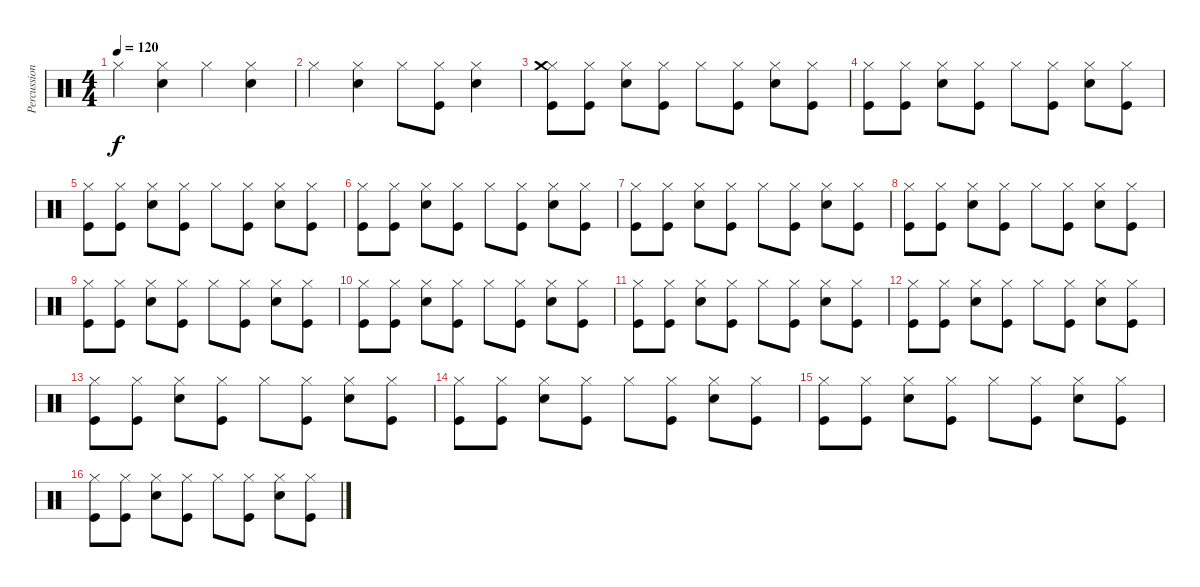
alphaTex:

\track ("Percussion" "Percussion") {instrument percussion}
\staff {score}
\articulation defaults
\ts (4 4)
\tempo 120
\clef neutral
\ks c "Hi-Hat (closed)".4{dy f}
("Electric Snare (hit)" "Hi-Hat (closed)").4 "Hi-Hat (closed)".4 ("Electric Snare (hit)" "Hi-Hat (closed)").4 |
"Hi-Hat (closed)".4 ("Electric Snare (hit)" "Hi-Hat (closed)").4 "Hi-Hat (closed)".8 ("Hi-Hat (closed)" "Kick (hit)").8 ("Electric Snare (hit)" "Hi-Hat (closed)").4 |
("Kick (hit)" "Hi-Hat (closed)" "Crash medium (hit)").8 ("Kick (hit)" "Hi-Hat (closed)").8 ("Electric Snare (hit)" "Hi-Hat (closed)").8 ("Kick (hit)" "Hi-Hat (closed)").8 "Hi-Hat (closed)".8 ("Kick (hit)" "Hi-Hat (closed)").8 ("Electric Snare (hit)" "Hi-Hat (closed)").8 ("Kick (hit)" "Hi-Hat (closed)").8 |
("Kick (hit)" "Hi-Hat (closed)").8 ("Kick (hit)" "Hi-Hat (closed)").8 ("Electric Snare (hit)" "Hi-Hat (closed)").8 ("Kick (hit)" "Hi-Hat (closed)").8 "Hi-Hat (closed)".8 ("Kick (hit)" "Hi-Hat (closed)").8 ("Electric Snare (hit)" "Hi-Hat (closed)").8 ("Kick (hit)" "Hi-Hat (closed)").8 |
("Kick (hit)" "Hi-Hat (closed)").8 ("Kick (hit)" "Hi-Hat (closed)").8 ("Electric Snare (hit)" "Hi-Hat (closed)").8 ("Kick (hit)" "Hi-Hat (closed)").8 "Hi-Hat (closed)".8 ("Kick (hit)" "Hi-Hat (closed)").8 ("Electric Snare (hit)" "Hi-Hat (closed)").8 ("Kick (hit)" "Hi-Hat (closed)").8 |
("Kick (hit)" "Hi-Hat (closed)").8 ("Kick (hit)" "Hi-Hat (closed)").8 ("Electric Snare (hit)" "Hi-Hat (closed)").8 ("Kick (hit)" "Hi-Hat (closed)").8 "Hi-Hat (closed)".8 ("Kick (hit)" "Hi-Hat (closed)").8 ("Electric Snare (hit)" "Hi-Hat (closed)").8 ("Kick (hit)" "Hi-Hat (closed)").8 |
("Kick (hit)" "Hi-Hat (closed)").8 ("Kick (hit)" "Hi-Hat (closed)").8 ("Electric Snare (hit)" "Hi-Hat (closed)").8 ("Kick (hit)" "Hi-Hat (closed)").8 "Hi-Hat (closed)".8 ("Kick (hit)" "Hi-Hat (closed)").8 ("Electric Snare (hit)" "Hi-Hat (closed)").8 ("Kick (hit)" "Hi-Hat (closed)").8 |
("Kick (hit)" "Hi-Hat (closed)").8 ("Kick (hit)" "Hi-Hat (closed)").8 ("Electric Snare (hit)" "Hi-Hat (closed)").8 ("Kick (hit)" "Hi-Hat (closed)").8 "Hi-Hat (closed)".8 ("Kick (hit)" "Hi-Hat (closed)").8 ("Electric Snare (hit)" "Hi-Hat (closed)").8 ("Kick (hit)" "Hi-Hat (closed)").8 |
("Kick (hit)" "Hi-Hat (closed)").8 ("Kick (hit)" "Hi-Hat (closed)").8 ("Electric Snare (hit)" "Hi-Hat (closed)").8 ("Kick (hit)" "Hi-Hat (closed)").8 "Hi-Hat (closed)".8 ("Kick (hit)" "Hi-Hat (closed)").8 ("Electric Snare (hit)" "Hi-Hat (closed)").8 ("Kick (hit)" "Hi-Hat (closed)").8 |
("Kick (hit)" "Hi-Hat (closed)").8 ("Kick (hit)" "Hi-Hat (closed)").8 ("Electric Snare (hit)" "Hi-Hat (closed)").8 ("Kick (hit)" "Hi-Hat (closed)").8 "Hi-Hat (closed)".8 ("Kick (hit)" "Hi-Hat (closed)").8 ("Electric Snare (hit)" "Hi-Hat (closed)").8 ("Kick (hit)" "Hi-Hat (closed)").8 |
("Kick (hit)" "Hi-Hat (closed)").8 ("Kick (hit)" "Hi-Hat (closed)").8 ("Electric Snare (hit)" "Hi-Hat (closed)").8 ("Kick (hit)" "Hi-Hat (closed)").8 "Hi-Hat (closed)".8 ("Kick (hit)" "Hi-Hat (closed)").8 ("Electric Snare (hit)" "Hi-Hat (closed)").8 ("Kick (hit)" "Hi-Hat (closed)").8 |
("Kick (hit)" "Hi-Hat (closed)").8 ("Kick (hit)" "Hi-Hat (closed)").8 ("Electric Snare (hit)" "Hi-Hat (closed)").8 ("Kick (hit)" "Hi-Hat (closed)").8 "Hi-Hat (closed)".8 ("Kick (hit)" "Hi-Hat (closed)").8 ("Electric Snare (hit)" "Hi-Hat (closed)").8 ("Kick (hit)" "Hi-Hat (closed)").8 |
("Kick (hit)" "Hi-Hat (closed)").8 ("Kick (hit)" "Hi-Hat (closed)").8 ("Electric Snare (hit)" "Hi-Hat (closed)").8 ("Kick (hit)" "Hi-Hat (closed)").8 "Hi-Hat (closed)".8 ("Kick (hit)" "Hi-Hat (closed)").8 ("Electric Snare (hit)" "Hi-Hat (closed)").8 ("Kick (hit)" "Hi-Hat (closed)").8 |
("Kick (hit)" "Hi-Hat (closed)").8 ("Kick (hit)" "Hi-Hat (closed)").8 ("Electric Snare (hit)" "Hi-Hat (closed)").8 ("Kick (hit)" "Hi-Hat (closed)").8 "Hi-Hat (closed)".8 ("Kick (hit)" "Hi-Hat (closed)").8 ("Electric Snare (hit)" "Hi-Hat (closed)").8 ("Kick (hit)" "Hi-Hat (closed)").8 |
("Kick (hit)" "Hi-Hat (closed)").8 ("Kick (hit)" "Hi-Hat (closed)").8 ("Electric Snare (hit)" "Hi-Hat (closed)").8 ("Kick (hit)" "Hi-Hat (closed)").8 "Hi-Hat (closed)".8 ("Kick (hit)" "Hi-Hat (closed)").8 ("Electric Snare (hit)" "Hi-Hat (closed)").8 ("Kick (hit)" "Hi-Hat (closed)").8 |
("Kick (hit)" "Hi-Hat (closed)").8 ("Kick (hit)" "Hi-Hat (closed)").8 ("Electric Snare (hit)" "Hi-Hat (closed)").8 ("Kick (hit)" "Hi-Hat (closed)").8 "Hi-Hat (closed)".8 ("Kick (hit)" "Hi-Hat (closed)").8 ("Electric Snare (hit)" "Hi-Hat (closed)").8 ("Kick (hit)" "Hi-Hat (closed)").8
